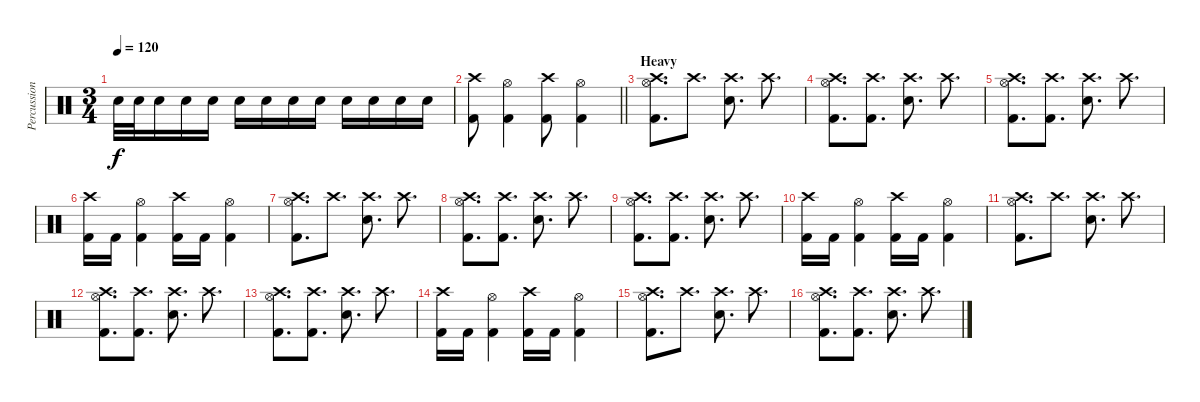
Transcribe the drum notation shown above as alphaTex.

\track ("Percussion" "Percussion") {instrument percussion}
\staff {score}
\articulation defaults
\ts (3 4)
\tempo 120
\clef neutral
\ks c "Snare (hit) 2".32{dy f} "Snare (hit) 2".32 "Snare (hit) 2".16 "Snare (hit) 2".16 "Snare (hit) 2".16 "Snare (hit) 2".16 "Snare (hit) 2".16 "Snare (hit) 2".16 "Snare (hit) 2".16 "Snare (hit) 2".16 "Snare (hit) 2".16 "Snare (hit) 2".16 "Snare (hit) 2".16
|
\barLineRight lightlight
("Crash high (hit)" "Kick (hit) 2").8 ("Hi-Hat (open)" "Kick (hit) 2").4 ("Crash high (hit)" "Kick (hit) 2").8 ("Hi-Hat (open)" "Kick (hit) 2").4 |
\section ("" "Heavy")
("Hi-Hat (open)" "Crash high (hit)" "Kick (hit) 2").8{d} "Crash high (hit)".8{d} ("Crash high (hit)" "Snare (hit) 2").8{d} "Crash high (hit)".8{d} |
("Hi-Hat (open)" "Crash high (hit)" "Kick (hit) 2").8{d} ("Crash high (hit)" "Kick (hit) 2").8{d} ("Crash high (hit)" "Snare (hit) 2").8{d} "Crash high (hit)".8{d} |
("Hi-Hat (open)" "Crash high (hit)" "Kick (hit) 2").8{d} ("Crash high (hit)" "Kick (hit) 2").8{d} ("Crash high (hit)" "Snare (hit) 2").8{d} "Crash high (hit)".8{d} |
("Crash high (hit)" "Kick (hit) 2").16 "Kick (hit) 2".16 ("Hi-Hat (open)" "Kick (hit) 2").4 ("Crash high (hit)" "Kick (hit) 2").16 "Kick (hit) 2".16 ("Hi-Hat (open)" "Kick (hit) 2").4 |
("Hi-Hat (open)" "Crash high (hit)" "Kick (hit) 2").8{d} "Crash high (hit)".8{d} ("Crash high (hit)" "Snare (hit) 2").8{d} "Crash high (hit)".8{d} |
("Hi-Hat (open)" "Crash high (hit)" "Kick (hit) 2").8{d} ("Crash high (hit)" "Kick (hit) 2").8{d} ("Crash high (hit)" "Snare (hit) 2").8{d} "Crash high (hit)".8{d} |
("Hi-Hat (open)" "Crash high (hit)" "Kick (hit) 2").8{d} ("Crash high (hit)" "Kick (hit) 2").8{d} ("Crash high (hit)" "Snare (hit) 2").8{d} "Crash high (hit)".8{d} |
("Crash high (hit)" "Kick (hit) 2").16 "Kick (hit) 2".16 ("Hi-Hat (open)" "Kick (hit) 2").4 ("Crash high (hit)" "Kick (hit) 2").16 "Kick (hit) 2".16 ("Hi-Hat (open)" "Kick (hit) 2").4 |
("Hi-Hat (open)" "Crash high (hit)" "Kick (hit) 2").8{d} "Crash high (hit)".8{d} ("Crash high (hit)" "Snare (hit) 2").8{d} "Crash high (hit)".8{d} |
("Hi-Hat (open)" "Crash high (hit)" "Kick (hit) 2").8{d} ("Crash high (hit)" "Kick (hit) 2").8{d} ("Crash high (hit)" "Snare (hit) 2").8{d} "Crash high (hit)".8{d} |
("Hi-Hat (open)" "Crash high (hit)" "Kick (hit) 2").8{d} ("Crash high (hit)" "Kick (hit) 2").8{d} ("Crash high (hit)" "Snare (hit) 2").8{d} "Crash high (hit)".8{d} |
("Crash high (hit)" "Kick (hit) 2").16 "Kick (hit) 2".16 ("Hi-Hat (open)" "Kick (hit) 2").4 ("Crash high (hit)" "Kick (hit) 2").16 "Kick (hit) 2".16 ("Hi-Hat (open)" "Kick (hit) 2").4 |
("Hi-Hat (open)" "Crash high (hit)" "Kick (hit) 2").8{d} "Crash high (hit)".8{d} ("Crash high (hit)" "Snare (hit) 2").8{d} "Crash high (hit)".8{d} |
("Hi-Hat (open)" "Crash high (hit)" "Kick (hit) 2").8{d} ("Crash high (hit)" "Kick (hit) 2").8{d} ("Crash high (hit)" "Snare (hit) 2").8{d} "Crash high (hit)".8{d}
